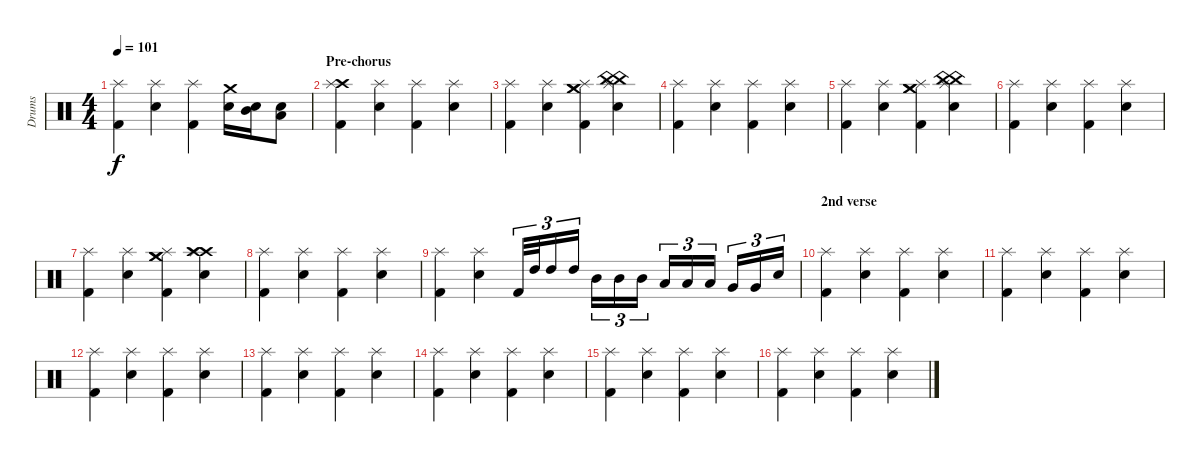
\track ("Drums" "Drums") {instrument percussion}
\staff {score}
\articulation defaults
\ts (4 4)
\tempo 101
\clef neutral
\ks c
("Splash (hit)" "Kick (hit) 2").4{dy f} ("Splash (hit)" "Snare (hit) 2").4 ("Splash (hit)" "Kick (hit) 2").4 ("Crash medium (hit)" "Snare (hit) 2").16 ("Mid Tom (hit)" "Snare (hit) 2").16 ("Low Tom (hit)" "Snare (hit) 2").8 |
\section ("" "Pre-chorus")
("Crash high (hit)" "Splash (hit)" "Kick (hit) 2").4 ("Splash (hit)" "Snare (hit) 2").4 ("Splash (hit)" "Kick (hit) 2").4 ("Splash (hit)" "Snare (hit) 2").4 |
("Splash (hit)" "Kick (hit) 2").4 ("Splash (hit)" "Snare (hit) 2").4 ("Crash medium (hit)" "Crash medium (hit)" "Splash (hit)" "Kick (hit) 2").4 ("China (hit)" "China (hit)" "Splash (hit)" "Snare (hit) 2").4 |
("Splash (hit)" "Kick (hit) 2").4 ("Splash (hit)" "Snare (hit) 2").4 ("Splash (hit)" "Kick (hit) 2").4 ("Splash (hit)" "Snare (hit) 2").4 |
("Splash (hit)" "Kick (hit) 2").4 ("Splash (hit)" "Snare (hit) 2").4 ("Crash medium (hit)" "Crash medium (hit)" "Splash (hit)" "Kick (hit) 2").4 ("China (hit)" "China (hit)" "Splash (hit)" "Snare (hit) 2").4 |
("Splash (hit)" "Kick (hit) 2").4 ("Splash (hit)" "Snare (hit) 2").4 ("Splash (hit)" "Kick (hit) 2").4 ("Splash (hit)" "Snare (hit) 2").4 |
("Splash (hit)" "Kick (hit) 2").4 ("Splash (hit)" "Snare (hit) 2").4 ("Crash medium (hit)" "Crash medium (hit)" "Splash (hit)" "Kick (hit) 2").4 ("Crash high (hit)" "Crash high (hit)" "Splash (hit)" "Snare (hit) 2").4 |
("Splash (hit)" "Kick (hit) 2").4 ("Splash (hit)" "Snare (hit) 2").4 ("Splash (hit)" "Kick (hit) 2").4 ("Splash (hit)" "Snare (hit) 2").4 |
("Splash (hit)" "Kick (hit) 2").4 ("Splash (hit)" "Snare (hit) 2").4 "Kick (hit) 2".32{tu (3 2)} "High Tom (hit)".32{tu (3 2)} "High Tom (hit)".16{tu (3 2)} "High Tom (hit)".16{tu (3 2)} "Mid Tom (hit)".16{tu (3 2)} "Mid Tom (hit)".16{tu (3 2)} "Mid Tom (hit)".16{tu (3 2)} "Low Tom (hit)".16{tu (3 2)} "Low Tom (hit)".16{tu (3 2)} "Low Tom (hit)".16{tu (3 2)} "Very Low Tom (hit)".16{tu (3 2)} "Very Low Tom (hit)".16{tu (3 2)} "Snare (hit) 2".16{tu (3 2)} |
\section ("" "2nd verse")
("Splash (hit)" "Kick (hit) 2").4 ("Splash (hit)" "Snare (hit) 2").4 ("Splash (hit)" "Kick (hit) 2").4 ("Splash (hit)" "Snare (hit) 2").4 |
("Splash (hit)" "Kick (hit) 2").4 ("Splash (hit)" "Snare (hit) 2").4 ("Splash (hit)" "Kick (hit) 2").4 ("Splash (hit)" "Snare (hit) 2").4 |
("Splash (hit)" "Kick (hit) 2").4 ("Splash (hit)" "Snare (hit) 2").4 ("Splash (hit)" "Kick (hit) 2").4 ("Splash (hit)" "Snare (hit) 2").4 |
("Splash (hit)" "Kick (hit) 2").4 ("Splash (hit)" "Snare (hit) 2").4 ("Splash (hit)" "Kick (hit) 2").4 ("Splash (hit)" "Snare (hit) 2").4 |
("Splash (hit)" "Kick (hit) 2").4 ("Splash (hit)" "Snare (hit) 2").4 ("Splash (hit)" "Kick (hit) 2").4 ("Splash (hit)" "Snare (hit) 2").4 |
("Splash (hit)" "Kick (hit) 2").4 ("Splash (hit)" "Snare (hit) 2").4 ("Splash (hit)" "Kick (hit) 2").4 ("Splash (hit)" "Snare (hit) 2").4 |
("Splash (hit)" "Kick (hit) 2").4 ("Splash (hit)" "Snare (hit) 2").4 ("Splash (hit)" "Kick (hit) 2").4 ("Splash (hit)" "Snare (hit) 2").4
